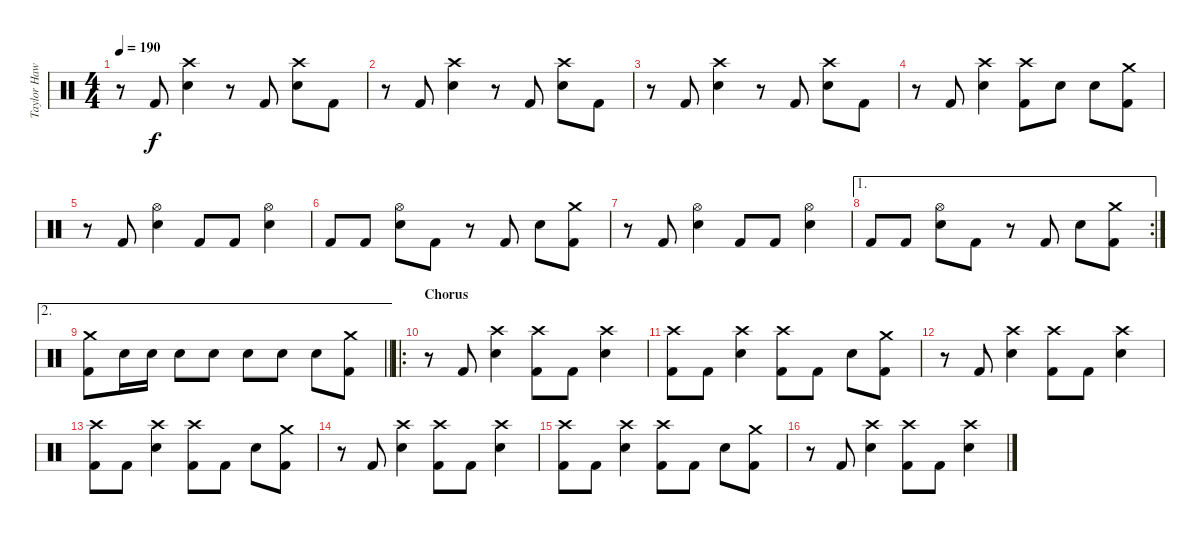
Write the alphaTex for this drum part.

\track ("Taylor Hawkins (Drums)" "Taylor Haw") {instrument percussion}
\staff {score}
\articulation defaults
\ts (4 4)
\tempo 190
\clef neutral
\ks c
r.8{dy f} "Kick (hit) 2".8 ("Crash high (hit)" "Snare (hit) 2").4 r.8 "Kick (hit) 2".8 ("Crash high (hit)" "Snare (hit) 2").8 "Kick (hit) 2".8 |
r.8 "Kick (hit) 2".8 ("Crash high (hit)" "Snare (hit) 2").4 r.8 "Kick (hit) 2".8 ("Crash high (hit)" "Snare (hit) 2").8 "Kick (hit) 2".8 |
r.8 "Kick (hit) 2".8 ("Crash high (hit)" "Snare (hit) 2").4 r.8 "Kick (hit) 2".8 ("Crash high (hit)" "Snare (hit) 2").8 "Kick (hit) 2".8 |
r.8 "Kick (hit) 2".8 ("Crash high (hit)" "Snare (hit) 2").4 ("Crash high (hit)" "Kick (hit) 2").8 "Snare (hit) 2".8 "Snare (hit) 2".8 ("Crash medium (hit)" "Kick (hit) 2").8 |
r.8 "Kick (hit) 2".8 ("Hi-Hat (open)" "Snare (hit) 2").4 "Kick (hit) 2".8 "Kick (hit) 2".8 ("Hi-Hat (open)" "Snare (hit) 2").4 |
"Kick (hit) 2".8 "Kick (hit) 2".8 ("Hi-Hat (open)" "Snare (hit) 2").8 "Kick (hit) 2".8 r.8 "Kick (hit) 2".8 "Snare (hit) 2".8 ("Crash medium (hit)" "Kick (hit) 2").8 |
r.8 "Kick (hit) 2".8 ("Hi-Hat (open)" "Snare (hit) 2").4 "Kick (hit) 2".8 "Kick (hit) 2".8 ("Hi-Hat (open)" "Snare (hit) 2").4 |
\ae 1
\rc 2 "Kick (hit) 2".8 "Kick (hit) 2".8
("Hi-Hat (open)" "Snare (hit) 2").8 "Kick (hit) 2".8 r.8 "Kick (hit) 2".8 "Snare (hit) 2".8 ("Crash medium (hit)" "Kick (hit) 2").8 |
\ae 2
\barLineRight lightlight
("Crash medium (hit)" "Kick (hit) 2").8 "Snare (hit) 2".16 "Snare (hit) 2".16 "Snare (hit) 2".8 "Snare (hit) 2".8 "Snare (hit) 2".8 "Snare (hit) 2".8 "Snare (hit) 2".8 ("Crash medium (hit)" "Kick (hit) 2").8 |
\ro
\section ("" "Chorus")
r.8 "Kick (hit) 2".8 ("Crash high (hit)" "Snare (hit) 2").4 ("Crash high (hit)" "Kick (hit) 2").8 "Kick (hit) 2".8 ("Crash high (hit)" "Snare (hit) 2").4 |
("Crash high (hit)" "Kick (hit) 2").8 "Kick (hit) 2".8 ("Crash high (hit)" "Snare (hit) 2").4 ("Crash high (hit)" "Kick (hit) 2").8 "Kick (hit) 2".8 "Snare (hit) 2".8 ("Crash medium (hit)" "Kick (hit) 2").8 |
r.8 "Kick (hit) 2".8 ("Crash high (hit)" "Snare (hit) 2").4 ("Crash high (hit)" "Kick (hit) 2").8 "Kick (hit) 2".8 ("Crash high (hit)" "Snare (hit) 2").4 |
("Crash high (hit)" "Kick (hit) 2").8 "Kick (hit) 2".8 ("Crash high (hit)" "Snare (hit) 2").4 ("Crash high (hit)" "Kick (hit) 2").8 "Kick (hit) 2".8 "Snare (hit) 2".8 ("Crash medium (hit)" "Kick (hit) 2").8 |
r.8 "Kick (hit) 2".8 ("Crash high (hit)" "Snare (hit) 2").4 ("Crash high (hit)" "Kick (hit) 2").8 "Kick (hit) 2".8 ("Crash high (hit)" "Snare (hit) 2").4 |
("Crash high (hit)" "Kick (hit) 2").8 "Kick (hit) 2".8 ("Crash high (hit)" "Snare (hit) 2").4 ("Crash high (hit)" "Kick (hit) 2").8 "Kick (hit) 2".8 "Snare (hit) 2".8 ("Crash medium (hit)" "Kick (hit) 2").8 |
r.8 "Kick (hit) 2".8 ("Crash high (hit)" "Snare (hit) 2").4 ("Crash high (hit)" "Kick (hit) 2").8 "Kick (hit) 2".8 ("Crash high (hit)" "Snare (hit) 2").4
